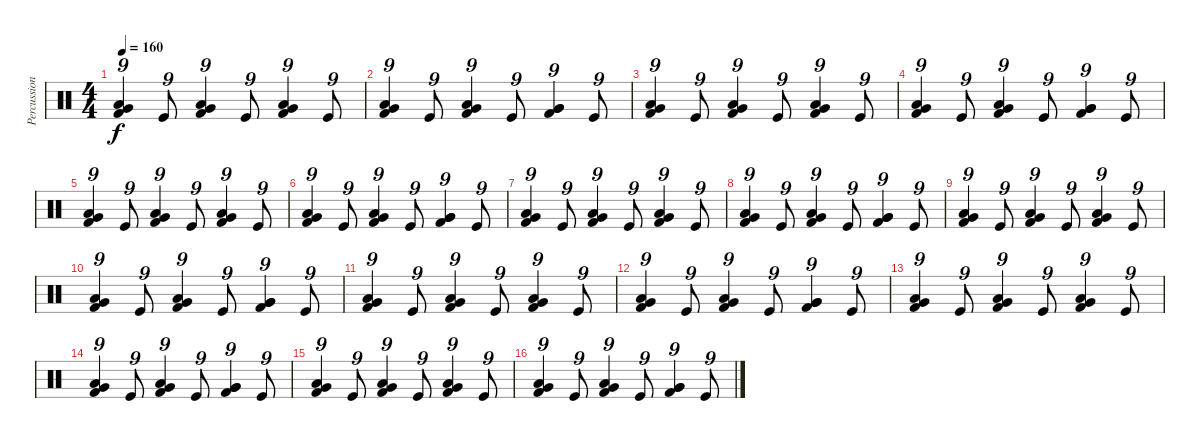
\track ("Percussion" "Percussion") {instrument percussion}
\staff {score}
\articulation defaults
\ts (4 4)
\tempo 160
\clef neutral
\ks c
("Very Low Tom (hit)" "Kick (hit) 2" "Low Floor Tom (hit)").4{tu (9 8) dy f} "Kick (hit)".8{tu (9 8)} ("Very Low Tom (hit)" "Kick (hit) 2" "Low Floor Tom (hit)").4{tu (9 8)} "Kick (hit)".8{tu (9 8)} ("Very Low Tom (hit)" "Kick (hit) 2" "Low Tom (hit)").4{tu (9 8)} "Kick (hit)".8{tu (9 8)} |
("Very Low Tom (hit)" "Kick (hit) 2" "Low Floor Tom (hit)").4{tu (9 8)} "Kick (hit)".8{tu (9 8)} ("Very Low Tom (hit)" "Kick (hit) 2" "Low Floor Tom (hit)").4{tu (9 8)} "Kick (hit)".8{tu (9 8)} ("Very Low Tom (hit)" "Kick (hit) 2" "Very Low Tom (hit)").4{tu (9 8)} "Kick (hit)".8{tu (9 8)} |
("Very Low Tom (hit)" "Kick (hit) 2" "Low Floor Tom (hit)").4{tu (9 8)} "Kick (hit)".8{tu (9 8)} ("Very Low Tom (hit)" "Kick (hit) 2" "Low Floor Tom (hit)").4{tu (9 8)} "Kick (hit)".8{tu (9 8)} ("Very Low Tom (hit)" "Kick (hit) 2" "Low Tom (hit)").4{tu (9 8)} "Kick (hit)".8{tu (9 8)} |
("Very Low Tom (hit)" "Kick (hit) 2" "Low Floor Tom (hit)").4{tu (9 8)} "Kick (hit)".8{tu (9 8)} ("Very Low Tom (hit)" "Kick (hit) 2" "Low Floor Tom (hit)").4{tu (9 8)} "Kick (hit)".8{tu (9 8)} ("Very Low Tom (hit)" "Kick (hit) 2" "Very Low Tom (hit)").4{tu (9 8)} "Kick (hit)".8{tu (9 8)} |
("Very Low Tom (hit)" "Kick (hit) 2" "Low Floor Tom (hit)").4{tu (9 8)} "Kick (hit)".8{tu (9 8)} ("Very Low Tom (hit)" "Kick (hit) 2" "Low Floor Tom (hit)").4{tu (9 8)} "Kick (hit)".8{tu (9 8)} ("Very Low Tom (hit)" "Kick (hit) 2" "Low Tom (hit)").4{tu (9 8)} "Kick (hit)".8{tu (9 8)} |
("Very Low Tom (hit)" "Kick (hit) 2" "Low Floor Tom (hit)").4{tu (9 8)} "Kick (hit)".8{tu (9 8)} ("Very Low Tom (hit)" "Kick (hit) 2" "Low Floor Tom (hit)").4{tu (9 8)} "Kick (hit)".8{tu (9 8)} ("Very Low Tom (hit)" "Kick (hit) 2" "Very Low Tom (hit)").4{tu (9 8)} "Kick (hit)".8{tu (9 8)} |
("Very Low Tom (hit)" "Kick (hit) 2" "Low Floor Tom (hit)").4{tu (9 8)} "Kick (hit)".8{tu (9 8)} ("Very Low Tom (hit)" "Kick (hit) 2" "Low Floor Tom (hit)").4{tu (9 8)} "Kick (hit)".8{tu (9 8)} ("Very Low Tom (hit)" "Kick (hit) 2" "Low Tom (hit)").4{tu (9 8)} "Kick (hit)".8{tu (9 8)} |
("Very Low Tom (hit)" "Kick (hit) 2" "Low Floor Tom (hit)").4{tu (9 8)} "Kick (hit)".8{tu (9 8)} ("Very Low Tom (hit)" "Kick (hit) 2" "Low Floor Tom (hit)").4{tu (9 8)} "Kick (hit)".8{tu (9 8)} ("Very Low Tom (hit)" "Kick (hit) 2" "Very Low Tom (hit)").4{tu (9 8)} "Kick (hit)".8{tu (9 8)} |
("Very Low Tom (hit)" "Kick (hit) 2" "Low Floor Tom (hit)").4{tu (9 8)} "Kick (hit)".8{tu (9 8)} ("Very Low Tom (hit)" "Kick (hit) 2" "Low Floor Tom (hit)").4{tu (9 8)} "Kick (hit)".8{tu (9 8)} ("Very Low Tom (hit)" "Kick (hit) 2" "Low Tom (hit)").4{tu (9 8)} "Kick (hit)".8{tu (9 8)} |
("Very Low Tom (hit)" "Kick (hit) 2" "Low Floor Tom (hit)").4{tu (9 8)} "Kick (hit)".8{tu (9 8)} ("Very Low Tom (hit)" "Kick (hit) 2" "Low Floor Tom (hit)").4{tu (9 8)} "Kick (hit)".8{tu (9 8)} ("Very Low Tom (hit)" "Kick (hit) 2" "Very Low Tom (hit)").4{tu (9 8)} "Kick (hit)".8{tu (9 8)} |
("Very Low Tom (hit)" "Kick (hit) 2" "Low Floor Tom (hit)").4{tu (9 8)} "Kick (hit)".8{tu (9 8)} ("Very Low Tom (hit)" "Kick (hit) 2" "Low Floor Tom (hit)").4{tu (9 8)} "Kick (hit)".8{tu (9 8)} ("Very Low Tom (hit)" "Kick (hit) 2" "Low Tom (hit)").4{tu (9 8)} "Kick (hit)".8{tu (9 8)} |
("Very Low Tom (hit)" "Kick (hit) 2" "Low Floor Tom (hit)").4{tu (9 8)} "Kick (hit)".8{tu (9 8)} ("Very Low Tom (hit)" "Kick (hit) 2" "Low Floor Tom (hit)").4{tu (9 8)} "Kick (hit)".8{tu (9 8)} ("Very Low Tom (hit)" "Kick (hit) 2" "Very Low Tom (hit)").4{tu (9 8)} "Kick (hit)".8{tu (9 8)} |
("Very Low Tom (hit)" "Kick (hit) 2" "Low Floor Tom (hit)").4{tu (9 8)} "Kick (hit)".8{tu (9 8)} ("Very Low Tom (hit)" "Kick (hit) 2" "Low Floor Tom (hit)").4{tu (9 8)} "Kick (hit)".8{tu (9 8)} ("Very Low Tom (hit)" "Kick (hit) 2" "Low Tom (hit)").4{tu (9 8)} "Kick (hit)".8{tu (9 8)} |
("Very Low Tom (hit)" "Kick (hit) 2" "Low Floor Tom (hit)").4{tu (9 8)} "Kick (hit)".8{tu (9 8)} ("Very Low Tom (hit)" "Kick (hit) 2" "Low Floor Tom (hit)").4{tu (9 8)} "Kick (hit)".8{tu (9 8)} ("Very Low Tom (hit)" "Kick (hit) 2" "Very Low Tom (hit)").4{tu (9 8)} "Kick (hit)".8{tu (9 8)} |
("Very Low Tom (hit)" "Kick (hit) 2" "Low Floor Tom (hit)").4{tu (9 8)} "Kick (hit)".8{tu (9 8)} ("Very Low Tom (hit)" "Kick (hit) 2" "Low Floor Tom (hit)").4{tu (9 8)} "Kick (hit)".8{tu (9 8)} ("Very Low Tom (hit)" "Kick (hit) 2" "Low Tom (hit)").4{tu (9 8)} "Kick (hit)".8{tu (9 8)} |
("Very Low Tom (hit)" "Kick (hit) 2" "Low Floor Tom (hit)").4{tu (9 8)} "Kick (hit)".8{tu (9 8)} ("Very Low Tom (hit)" "Kick (hit) 2" "Low Floor Tom (hit)").4{tu (9 8)} "Kick (hit)".8{tu (9 8)} ("Very Low Tom (hit)" "Kick (hit) 2" "Very Low Tom (hit)").4{tu (9 8)} "Kick (hit)".8{tu (9 8)}
